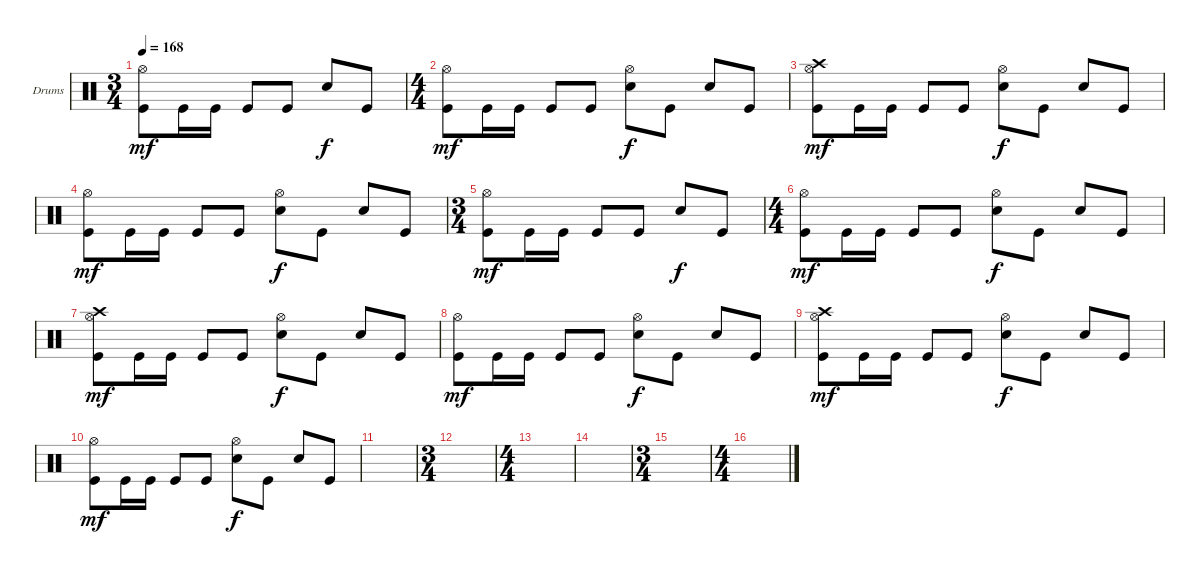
\bracketExtendMode groupsimilarinstruments
\firstSystemTrackNameOrientation horizontal
\otherSystemsTrackNameOrientation horizontal
\track ("Федя" "Drums") {instrument percussion}
\staff {score}
\articulation defaults
\ts (3 4)
\tempo 168
\clef neutral
\ks c
("Kick (hit)" "Hi-Hat (open)").8{dy mf} "Kick (hit)".16 "Kick (hit)".16 "Kick (hit)".8 "Kick (hit)".8 "Snare (hit) 2".8{dy f} "Kick (hit)".8 |
\ts (4 4)
("Kick (hit)" "Hi-Hat (open)").8{dy mf} "Kick (hit)".16 "Kick (hit)".16 "Kick (hit)".8 "Kick (hit)".8 ("Snare (hit) 2" "Hi-Hat (open)").8{dy f} "Kick (hit)".8 "Snare (hit) 2".8 "Kick (hit)".8 |
("Kick (hit)" "Hi-Hat (open)" "Crash high (hit)").8{dy mf} "Kick (hit)".16 "Kick (hit)".16 "Kick (hit)".8 "Kick (hit)".8 ("Snare (hit) 2" "Hi-Hat (open)").8{dy f} "Kick (hit)".8 "Snare (hit) 2".8 "Kick (hit)".8 |
("Kick (hit)" "Hi-Hat (open)").8{dy mf} "Kick (hit)".16 "Kick (hit)".16 "Kick (hit)".8 "Kick (hit)".8 ("Snare (hit) 2" "Hi-Hat (open)").8{dy f} "Kick (hit)".8 "Snare (hit) 2".8 "Kick (hit)".8 |
\ts (3 4)
("Kick (hit)" "Hi-Hat (open)").8{dy mf} "Kick (hit)".16 "Kick (hit)".16 "Kick (hit)".8 "Kick (hit)".8 "Snare (hit) 2".8{dy f} "Kick (hit)".8 |
\ts (4 4)
("Kick (hit)" "Hi-Hat (open)").8{dy mf} "Kick (hit)".16 "Kick (hit)".16 "Kick (hit)".8 "Kick (hit)".8 ("Snare (hit) 2" "Hi-Hat (open)").8{dy f} "Kick (hit)".8 "Snare (hit) 2".8 "Kick (hit)".8 |
("Kick (hit)" "Hi-Hat (open)" "Crash high (hit)").8{dy mf} "Kick (hit)".16 "Kick (hit)".16 "Kick (hit)".8 "Kick (hit)".8 ("Snare (hit) 2" "Hi-Hat (open)").8{dy f} "Kick (hit)".8 "Snare (hit) 2".8 "Kick (hit)".8 |
("Kick (hit)" "Hi-Hat (open)").8{dy mf} "Kick (hit)".16 "Kick (hit)".16 "Kick (hit)".8 "Kick (hit)".8 ("Snare (hit) 2" "Hi-Hat (open)").8{dy f} "Kick (hit)".8 "Snare (hit) 2".8 "Kick (hit)".8 |
("Kick (hit)" "Hi-Hat (open)" "Crash high (hit)").8{dy mf} "Kick (hit)".16 "Kick (hit)".16 "Kick (hit)".8 "Kick (hit)".8 ("Snare (hit) 2" "Hi-Hat (open)").8{dy f} "Kick (hit)".8 "Snare (hit) 2".8 "Kick (hit)".8 |
("Kick (hit)" "Hi-Hat (open)").8{dy mf} "Kick (hit)".16 "Kick (hit)".16 "Kick (hit)".8 "Kick (hit)".8 ("Snare (hit) 2" "Hi-Hat (open)").8{dy f} "Kick (hit)".8 "Snare (hit) 2".8 "Kick (hit)".8 |
|
\ts (3 4)
|
\ts (4 4)
|
|
\ts (3 4)
|
\ts (4 4)
